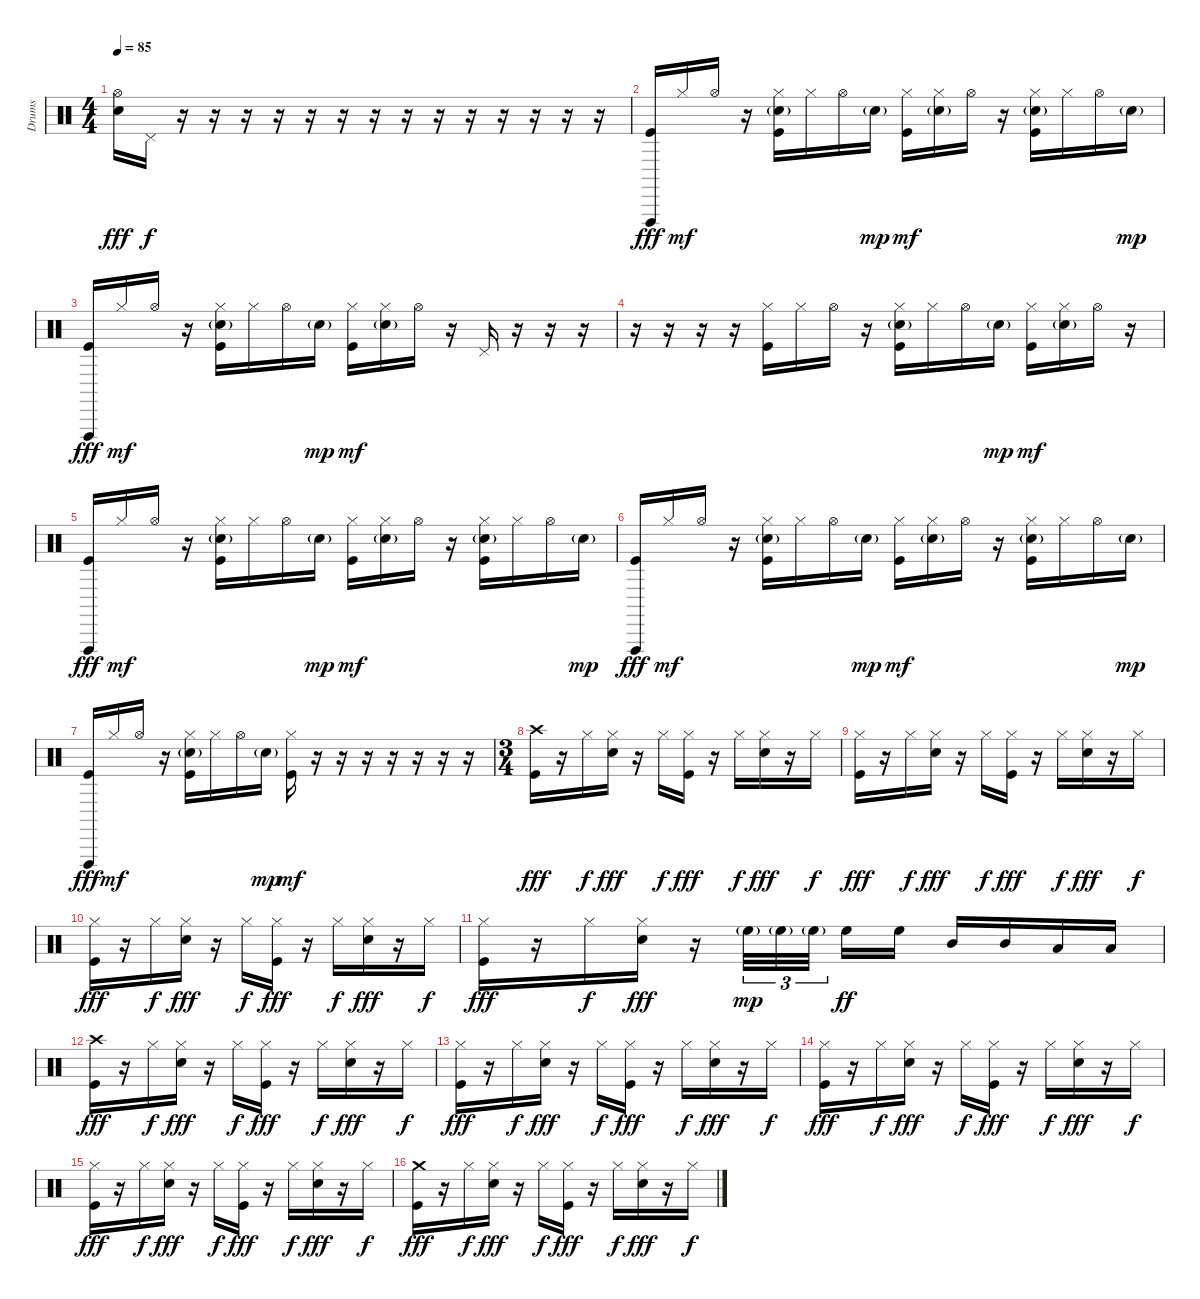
\track ("Drums" "Drums") {instrument percussion}
\staff {score}
\articulation defaults
\ts (4 4)
\tempo 85
\clef neutral
\ks c
("Electric Snare (hit)" "Hi-Hat (open)").16{dy fff} "Pedal Hi-Hat (hit)".16{dy f} r.16 r.16 r.16 r.16 r.16 r.16 r.16 r.16 r.16 r.16 r.16 r.16 r.16 r.16 |
("Kick (hit)" "Vibraslap (hit)").16{dy fff} "Hi-Hat (closed)".16{dy mf} "Hi-Hat (open)".16 r.16 ("Kick (hit)" "Snare (hit) 2"{g} "Hi-Hat (closed)").16 "Hi-Hat (closed)".16 "Hi-Hat (open)".16 "Snare (hit) 2"{g}.16{dy mp} ("Kick (hit)" "Hi-Hat (closed)").16{dy mf} ("Snare (hit) 2"{g} "Hi-Hat (closed)").16 "Hi-Hat (open)".16 r.16 ("Kick (hit)" "Snare (hit) 2"{g} "Hi-Hat (closed)").16 "Hi-Hat (closed)".16 "Hi-Hat (open)".16 "Snare (hit) 2"{g}.16{dy mp} |
("Kick (hit)" "Vibraslap (hit)").16{dy fff} "Hi-Hat (closed)".16{dy mf} "Hi-Hat (open)".16 r.16 ("Kick (hit)" "Snare (hit) 2"{g} "Hi-Hat (closed)").16 "Hi-Hat (closed)".16 "Hi-Hat (open)".16 "Snare (hit) 2"{g}.16{dy mp} ("Kick (hit)" "Hi-Hat (closed)").16{dy mf} ("Snare (hit) 2"{g} "Hi-Hat (closed)").16 "Hi-Hat (open)".16 r.16 "Pedal Hi-Hat (hit)".16 r.16 r.16 r.16 |
r.16 r.16 r.16 r.16 ("Kick (hit)" "Hi-Hat (closed)").16 "Hi-Hat (closed)".16 "Hi-Hat (open)".16 r.16 ("Kick (hit)" "Snare (hit) 2"{g} "Hi-Hat (closed)").16 "Hi-Hat (closed)".16 "Hi-Hat (open)".16 "Snare (hit) 2"{g}.16{dy mp} ("Kick (hit)" "Hi-Hat (closed)").16{dy mf} ("Snare (hit) 2"{g} "Hi-Hat (closed)").16 "Hi-Hat (open)".16 r.16 |
("Kick (hit)" "Vibraslap (hit)").16{dy fff} "Hi-Hat (closed)".16{dy mf} "Hi-Hat (open)".16 r.16 ("Kick (hit)" "Snare (hit) 2"{g} "Hi-Hat (closed)").16 "Hi-Hat (closed)".16 "Hi-Hat (open)".16 "Snare (hit) 2"{g}.16{dy mp} ("Kick (hit)" "Hi-Hat (closed)").16{dy mf} ("Snare (hit) 2"{g} "Hi-Hat (closed)").16 "Hi-Hat (open)".16 r.16 ("Kick (hit)" "Snare (hit) 2"{g} "Hi-Hat (closed)").16 "Hi-Hat (closed)".16 "Hi-Hat (open)".16 "Snare (hit) 2"{g}.16{dy mp} |
("Kick (hit)" "Vibraslap (hit)").16{dy fff} "Hi-Hat (closed)".16{dy mf} "Hi-Hat (open)".16 r.16 ("Kick (hit)" "Snare (hit) 2"{g} "Hi-Hat (closed)").16 "Hi-Hat (closed)".16 "Hi-Hat (open)".16 "Snare (hit) 2"{g}.16{dy mp} ("Kick (hit)" "Hi-Hat (closed)").16{dy mf} ("Snare (hit) 2"{g} "Hi-Hat (closed)").16 "Hi-Hat (open)".16 r.16 ("Kick (hit)" "Snare (hit) 2"{g} "Hi-Hat (closed)").16 "Hi-Hat (closed)".16 "Hi-Hat (open)".16 "Snare (hit) 2"{g}.16{dy mp} |
("Kick (hit)" "Vibraslap (hit)").16{dy fff} "Hi-Hat (closed)".16{dy mf} "Hi-Hat (open)".16 r.16 ("Kick (hit)" "Snare (hit) 2"{g} "Hi-Hat (closed)").16 "Hi-Hat (closed)".16 "Hi-Hat (open)".16 "Snare (hit) 2"{g}.16{dy mp} ("Kick (hit)" "Hi-Hat (closed)").16{dy mf} r.16 r.16 r.16 r.16 r.16 r.16 r.16 |
\ts (3 4)
("Kick (hit)" "Crash high (hit)").16{dy fff} r.16 "Hi-Hat (closed)".16{dy f} ("Electric Snare (hit)" "Hi-Hat (closed)").16{dy fff} r.16 "Hi-Hat (closed)".16{dy f} ("Kick (hit)" "Hi-Hat (closed)").16{dy fff} r.16 "Hi-Hat (closed)".16{dy f} ("Electric Snare (hit)" "Hi-Hat (closed)").16{dy fff} r.16 "Hi-Hat (closed)".16{dy f} |
("Kick (hit)" "Hi-Hat (closed)").16{dy fff} r.16 "Hi-Hat (closed)".16{dy f} ("Electric Snare (hit)" "Hi-Hat (closed)").16{dy fff} r.16 "Hi-Hat (closed)".16{dy f} ("Kick (hit)" "Hi-Hat (closed)").16{dy fff} r.16 "Hi-Hat (closed)".16{dy f} ("Electric Snare (hit)" "Hi-Hat (closed)").16{dy fff} r.16 "Hi-Hat (closed)".16{dy f} |
("Kick (hit)" "Hi-Hat (closed)").16{dy fff} r.16 "Hi-Hat (closed)".16{dy f} ("Electric Snare (hit)" "Hi-Hat (closed)").16{dy fff} r.16 "Hi-Hat (closed)".16{dy f} ("Kick (hit)" "Hi-Hat (closed)").16{dy fff} r.16 "Hi-Hat (closed)".16{dy f} ("Electric Snare (hit)" "Hi-Hat (closed)").16{dy fff} r.16 "Hi-Hat (closed)".16{dy f} |
("Kick (hit)" "Hi-Hat (closed)").16{dy fff} r.16 "Hi-Hat (closed)".16{dy f} ("Electric Snare (hit)" "Hi-Hat (closed)").16{dy fff} r.16 "High Floor Tom (hit)"{g}.32{tu (3 2) dy mp} "High Floor Tom (hit)"{g}.32{tu (3 2)} "High Floor Tom (hit)"{g}.32{tu (3 2)} "High Floor Tom (hit)".16{dy ff} "High Floor Tom (hit)".16 "Mid Tom (hit)".16 "Mid Tom (hit)".16 "Low Tom (hit)".16 "Low Tom (hit)".16 |
("Kick (hit)" "Crash high (hit)").16{dy fff} r.16 "Hi-Hat (closed)".16{dy f} ("Electric Snare (hit)" "Hi-Hat (closed)").16{dy fff} r.16 "Hi-Hat (closed)".16{dy f} ("Kick (hit)" "Hi-Hat (closed)").16{dy fff} r.16 "Hi-Hat (closed)".16{dy f} ("Electric Snare (hit)" "Hi-Hat (closed)").16{dy fff} r.16 "Hi-Hat (closed)".16{dy f} |
("Kick (hit)" "Hi-Hat (closed)").16{dy fff} r.16 "Hi-Hat (closed)".16{dy f} ("Electric Snare (hit)" "Hi-Hat (closed)").16{dy fff} r.16 "Hi-Hat (closed)".16{dy f} ("Kick (hit)" "Hi-Hat (closed)").16{dy fff} r.16 "Hi-Hat (closed)".16{dy f} ("Electric Snare (hit)" "Hi-Hat (closed)").16{dy fff} r.16 "Hi-Hat (closed)".16{dy f} |
("Kick (hit)" "Hi-Hat (closed)").16{dy fff} r.16 "Hi-Hat (closed)".16{dy f} ("Electric Snare (hit)" "Hi-Hat (closed)").16{dy fff} r.16 "Hi-Hat (closed)".16{dy f} ("Kick (hit)" "Hi-Hat (closed)").16{dy fff} r.16 "Hi-Hat (closed)".16{dy f} ("Electric Snare (hit)" "Hi-Hat (closed)").16{dy fff} r.16 "Hi-Hat (closed)".16{dy f} |
("Kick (hit)" "Hi-Hat (closed)").16{dy fff} r.16 "Hi-Hat (closed)".16{dy f} ("Electric Snare (hit)" "Hi-Hat (closed)").16{dy fff} r.16 "Hi-Hat (closed)".16{dy f} ("Kick (hit)" "Hi-Hat (closed)").16{dy fff} r.16 "Hi-Hat (closed)".16{dy f} ("Electric Snare (hit)" "Hi-Hat (closed)").16{dy fff} r.16 "Hi-Hat (closed)".16{dy f} |
("Kick (hit)" "Crash medium (hit)").16{dy fff} r.16 "Hi-Hat (closed)".16{dy f} ("Electric Snare (hit)" "Hi-Hat (closed)").16{dy fff} r.16 "Hi-Hat (closed)".16{dy f} ("Kick (hit)" "Hi-Hat (closed)").16{dy fff} r.16 "Hi-Hat (closed)".16{dy f} ("Electric Snare (hit)" "Hi-Hat (closed)").16{dy fff} r.16 "Hi-Hat (closed)".16{dy f}
